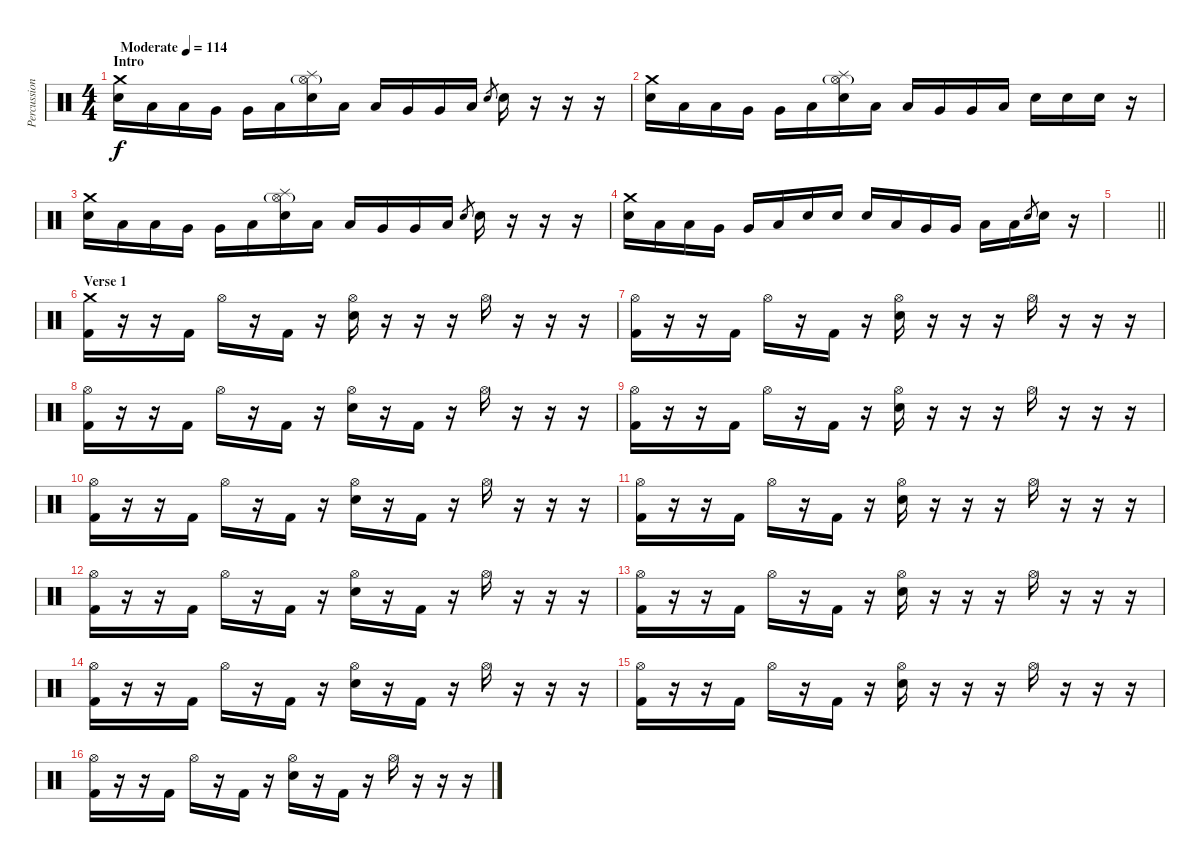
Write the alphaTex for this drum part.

\track ("Percussion" "Percussion") {instrument percussion}
\staff {score}
\articulation defaults
\ts (4 4)
\section ("" "Intro")
\tempo (114 "Moderate")
\clef neutral
\ks c
("Crash medium (hit)" "Electric Snare (hit)").16{dy f} "Low Tom (hit)".16 "Low Tom (hit)".16 "Very Low Tom (hit)".16 "Very Low Tom (hit)".16 "Low Floor Tom (hit)".16 ("Hi-Hat (open)"{g} "Splash (hit)" "Electric Snare (hit)").16 "Low Tom (hit)".16 "Low Tom (hit)".16 "Very Low Tom (hit)".16 "Very Low Tom (hit)".16 "Low Floor Tom (hit)".16 "Electric Snare (hit)".8{gr} "Electric Snare (hit)".16 r.16 r.16 r.16 |
("Crash medium (hit)" "Electric Snare (hit)").16 "Low Tom (hit)".16 "Low Tom (hit)".16 "Very Low Tom (hit)".16 "Very Low Tom (hit)".16 "Low Floor Tom (hit)".16 ("Hi-Hat (open)"{g} "Splash (hit)" "Electric Snare (hit)").16 "Low Tom (hit)".16 "Low Tom (hit)".16 "Very Low Tom (hit)".16 "Very Low Tom (hit)".16 "Low Floor Tom (hit)".16 "Electric Snare (hit)".16 "Electric Snare (hit)".16 "Electric Snare (hit)".16 r.16 |
("Crash medium (hit)" "Electric Snare (hit)").16 "Low Tom (hit)".16 "Low Tom (hit)".16 "Very Low Tom (hit)".16 "Very Low Tom (hit)".16 "Low Floor Tom (hit)".16 ("Hi-Hat (open)"{g} "Splash (hit)" "Electric Snare (hit)").16 "Low Tom (hit)".16 "Low Tom (hit)".16 "Very Low Tom (hit)".16 "Very Low Tom (hit)".16 "Low Floor Tom (hit)".16 "Electric Snare (hit)".8{gr} "Electric Snare (hit)".16 r.16 r.16 r.16 |
("Crash medium (hit)" "Electric Snare (hit)").16 "Low Tom (hit)".16 "Low Tom (hit)".16 "Very Low Tom (hit)".16 "Very Low Tom (hit)".16 "Low Floor Tom (hit)".16 "Electric Snare (hit)".16 "Electric Snare (hit)".16 "Electric Snare (hit)".16 "Low Tom (hit)".16 "Very Low Tom (hit)".16 "Very Low Tom (hit)".16 "Low Floor Tom (hit)".16 "Low Floor Tom (hit)".16 "Electric Snare (hit)".8{gr} "Electric Snare (hit)".16 r.16 |
\barLineRight lightlight
|
\section ("" "Verse 1")
("Crash medium (hit)" "Kick (hit) 2").16 r.16 r.16 "Kick (hit) 2".16 "Hi-Hat (open)".16 r.16 "Kick (hit) 2".16 r.16 ("Hi-Hat (open)" "Electric Snare (hit)").16 r.16 r.16 r.16 "Hi-Hat (open)".16 r.16 r.16 r.16 |
("Hi-Hat (open)" "Kick (hit) 2").16 r.16 r.16 "Kick (hit) 2".16 "Hi-Hat (open)".16 r.16 "Kick (hit) 2".16 r.16 ("Hi-Hat (open)" "Electric Snare (hit)").16 r.16 r.16 r.16 "Hi-Hat (open)".16 r.16 r.16 r.16 |
("Hi-Hat (open)" "Kick (hit) 2").16 r.16 r.16 "Kick (hit) 2".16 "Hi-Hat (open)".16 r.16 "Kick (hit) 2".16 r.16 ("Hi-Hat (open)" "Electric Snare (hit)").16 r.16 "Kick (hit) 2".16 r.16 "Hi-Hat (open)".16 r.16 r.16 r.16 |
("Hi-Hat (open)" "Kick (hit) 2").16 r.16 r.16 "Kick (hit) 2".16 "Hi-Hat (open)".16 r.16 "Kick (hit) 2".16 r.16 ("Hi-Hat (open)" "Electric Snare (hit)").16 r.16 r.16 r.16 "Hi-Hat (open)".16 r.16 r.16 r.16 |
("Hi-Hat (open)" "Kick (hit) 2").16 r.16 r.16 "Kick (hit) 2".16 "Hi-Hat (open)".16 r.16 "Kick (hit) 2".16 r.16 ("Hi-Hat (open)" "Electric Snare (hit)").16 r.16 "Kick (hit) 2".16 r.16 "Hi-Hat (open)".16 r.16 r.16 r.16 |
("Hi-Hat (open)" "Kick (hit) 2").16 r.16 r.16 "Kick (hit) 2".16 "Hi-Hat (open)".16 r.16 "Kick (hit) 2".16 r.16 ("Hi-Hat (open)" "Electric Snare (hit)").16 r.16 r.16 r.16 "Hi-Hat (open)".16 r.16 r.16 r.16 |
("Hi-Hat (open)" "Kick (hit) 2").16 r.16 r.16 "Kick (hit) 2".16 "Hi-Hat (open)".16 r.16 "Kick (hit) 2".16 r.16 ("Hi-Hat (open)" "Electric Snare (hit)").16 r.16 "Kick (hit) 2".16 r.16 "Hi-Hat (open)".16 r.16 r.16 r.16 |
("Hi-Hat (open)" "Kick (hit) 2").16 r.16 r.16 "Kick (hit) 2".16 "Hi-Hat (open)".16 r.16 "Kick (hit) 2".16 r.16 ("Hi-Hat (open)" "Electric Snare (hit)").16 r.16 r.16 r.16 "Hi-Hat (open)".16 r.16 r.16 r.16 |
("Hi-Hat (open)" "Kick (hit) 2").16 r.16 r.16 "Kick (hit) 2".16 "Hi-Hat (open)".16 r.16 "Kick (hit) 2".16 r.16 ("Hi-Hat (open)" "Electric Snare (hit)").16 r.16 "Kick (hit) 2".16 r.16 "Hi-Hat (open)".16 r.16 r.16 r.16 |
("Hi-Hat (open)" "Kick (hit) 2").16 r.16 r.16 "Kick (hit) 2".16 "Hi-Hat (open)".16 r.16 "Kick (hit) 2".16 r.16 ("Hi-Hat (open)" "Electric Snare (hit)").16 r.16 r.16 r.16 "Hi-Hat (open)".16 r.16 r.16 r.16 |
("Hi-Hat (open)" "Kick (hit) 2").16 r.16 r.16 "Kick (hit) 2".16 "Hi-Hat (open)".16 r.16 "Kick (hit) 2".16 r.16 ("Hi-Hat (open)" "Electric Snare (hit)").16 r.16 "Kick (hit) 2".16 r.16 "Hi-Hat (open)".16 r.16 r.16 r.16
